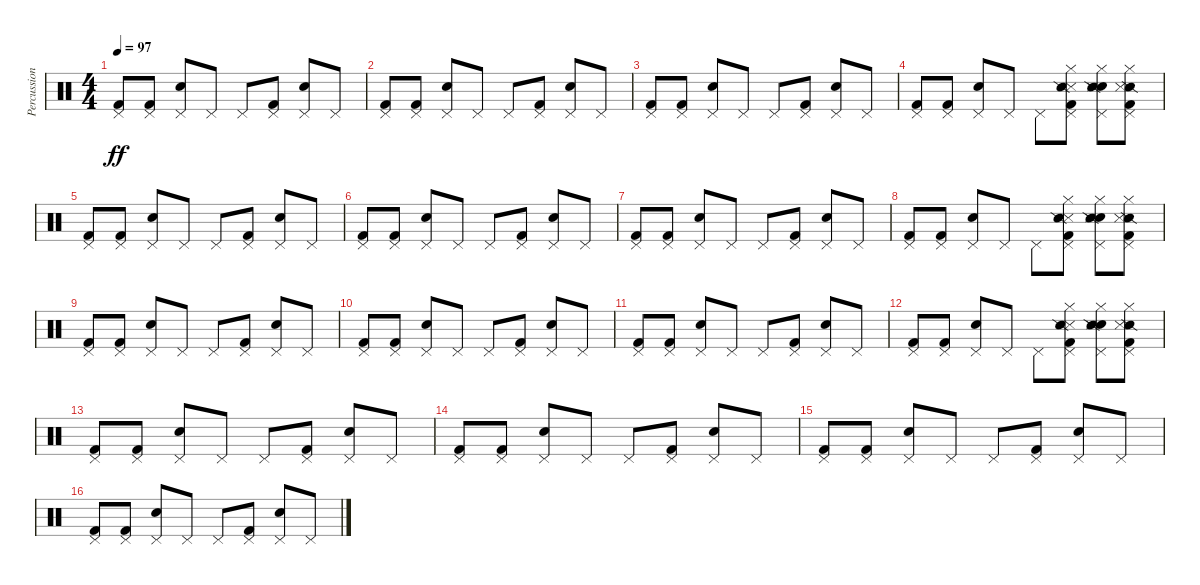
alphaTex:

\track ("Percussion" "Percussion") {instrument percussion}
\staff {score}
\articulation defaults
\ts (4 4)
\tempo 97
\clef neutral
\ks c
("Pedal Hi-Hat (hit)" "Kick (hit) 2").8{dy ff} ("Kick (hit) 2" "Pedal Hi-Hat (hit)").8 ("Electric Snare (hit)" "Pedal Hi-Hat (hit)").8 "Pedal Hi-Hat (hit)".8 "Pedal Hi-Hat (hit)".8 ("Kick (hit) 2" "Pedal Hi-Hat (hit)").8 ("Electric Snare (hit)" "Pedal Hi-Hat (hit)").8 "Pedal Hi-Hat (hit)".8 |
("Pedal Hi-Hat (hit)" "Kick (hit) 2").8 ("Kick (hit) 2" "Pedal Hi-Hat (hit)").8 ("Electric Snare (hit)" "Pedal Hi-Hat (hit)").8 "Pedal Hi-Hat (hit)".8 "Pedal Hi-Hat (hit)".8 ("Kick (hit) 2" "Pedal Hi-Hat (hit)").8 ("Electric Snare (hit)" "Pedal Hi-Hat (hit)").8 "Pedal Hi-Hat (hit)".8 |
("Pedal Hi-Hat (hit)" "Kick (hit) 2").8 ("Kick (hit) 2" "Pedal Hi-Hat (hit)").8 ("Electric Snare (hit)" "Pedal Hi-Hat (hit)").8 "Pedal Hi-Hat (hit)".8 "Pedal Hi-Hat (hit)".8 ("Kick (hit) 2" "Pedal Hi-Hat (hit)").8 ("Electric Snare (hit)" "Pedal Hi-Hat (hit)").8 "Pedal Hi-Hat (hit)".8 |
("Pedal Hi-Hat (hit)" "Kick (hit) 2").8 ("Kick (hit) 2" "Pedal Hi-Hat (hit)").8 ("Electric Snare (hit)" "Pedal Hi-Hat (hit)").8 "Pedal Hi-Hat (hit)".8 "Pedal Hi-Hat (hit)".8 ("Snare (side stick) 3" "Snare (side stick) 2" "Hi-Hat (closed)" "Pedal Hi-Hat (hit)" "Kick (hit) 2").8 ("Electric Snare (hit)" "Pedal Hi-Hat (hit)" "Hi-Hat (closed)" "Snare (side stick) 2" "Snare (side stick) 3").8 ("Pedal Hi-Hat (hit)" "Hi-Hat (closed)" "Snare (side stick) 2" "Kick (hit) 2" "Snare (side stick) 3").8 |
("Kick (hit) 2" "Pedal Hi-Hat (hit)").8 ("Kick (hit) 2" "Pedal Hi-Hat (hit)").8 ("Electric Snare (hit)" "Pedal Hi-Hat (hit)").8 "Pedal Hi-Hat (hit)".8 "Pedal Hi-Hat (hit)".8 ("Kick (hit) 2" "Pedal Hi-Hat (hit)").8 ("Electric Snare (hit)" "Pedal Hi-Hat (hit)").8 "Pedal Hi-Hat (hit)".8 |
("Pedal Hi-Hat (hit)" "Kick (hit) 2").8 ("Kick (hit) 2" "Pedal Hi-Hat (hit)").8 ("Electric Snare (hit)" "Pedal Hi-Hat (hit)").8 "Pedal Hi-Hat (hit)".8 "Pedal Hi-Hat (hit)".8 ("Kick (hit) 2" "Pedal Hi-Hat (hit)").8 ("Electric Snare (hit)" "Pedal Hi-Hat (hit)").8 "Pedal Hi-Hat (hit)".8 |
("Pedal Hi-Hat (hit)" "Kick (hit) 2").8 ("Kick (hit) 2" "Pedal Hi-Hat (hit)").8 ("Electric Snare (hit)" "Pedal Hi-Hat (hit)").8 "Pedal Hi-Hat (hit)".8 "Pedal Hi-Hat (hit)".8 ("Kick (hit) 2" "Pedal Hi-Hat (hit)").8 ("Electric Snare (hit)" "Pedal Hi-Hat (hit)").8 "Pedal Hi-Hat (hit)".8 |
("Pedal Hi-Hat (hit)" "Kick (hit) 2").8 ("Kick (hit) 2" "Pedal Hi-Hat (hit)").8 ("Electric Snare (hit)" "Pedal Hi-Hat (hit)").8 "Pedal Hi-Hat (hit)".8 "Pedal Hi-Hat (hit)".8 ("Snare (side stick) 3" "Snare (side stick) 2" "Hi-Hat (closed)" "Pedal Hi-Hat (hit)" "Kick (hit) 2").8 ("Electric Snare (hit)" "Pedal Hi-Hat (hit)" "Hi-Hat (closed)" "Snare (side stick) 2" "Snare (side stick) 3").8 ("Pedal Hi-Hat (hit)" "Hi-Hat (closed)" "Snare (side stick) 2" "Kick (hit) 2" "Snare (side stick) 3").8 |
("Pedal Hi-Hat (hit)" "Kick (hit) 2").8 ("Kick (hit) 2" "Pedal Hi-Hat (hit)").8 ("Electric Snare (hit)" "Pedal Hi-Hat (hit)").8 "Pedal Hi-Hat (hit)".8 "Pedal Hi-Hat (hit)".8 ("Kick (hit) 2" "Pedal Hi-Hat (hit)").8 ("Electric Snare (hit)" "Pedal Hi-Hat (hit)").8 "Pedal Hi-Hat (hit)".8 |
("Pedal Hi-Hat (hit)" "Kick (hit) 2").8 ("Kick (hit) 2" "Pedal Hi-Hat (hit)").8 ("Electric Snare (hit)" "Pedal Hi-Hat (hit)").8 "Pedal Hi-Hat (hit)".8 "Pedal Hi-Hat (hit)".8 ("Kick (hit) 2" "Pedal Hi-Hat (hit)").8 ("Electric Snare (hit)" "Pedal Hi-Hat (hit)").8 "Pedal Hi-Hat (hit)".8 |
("Pedal Hi-Hat (hit)" "Kick (hit) 2").8 ("Kick (hit) 2" "Pedal Hi-Hat (hit)").8 ("Electric Snare (hit)" "Pedal Hi-Hat (hit)").8 "Pedal Hi-Hat (hit)".8 "Pedal Hi-Hat (hit)".8 ("Kick (hit) 2" "Pedal Hi-Hat (hit)").8 ("Electric Snare (hit)" "Pedal Hi-Hat (hit)").8 "Pedal Hi-Hat (hit)".8 |
("Pedal Hi-Hat (hit)" "Kick (hit) 2").8 ("Kick (hit) 2" "Pedal Hi-Hat (hit)").8 ("Electric Snare (hit)" "Pedal Hi-Hat (hit)").8 "Pedal Hi-Hat (hit)".8 "Pedal Hi-Hat (hit)".8 ("Snare (side stick) 3" "Snare (side stick) 2" "Hi-Hat (closed)" "Pedal Hi-Hat (hit)" "Kick (hit) 2").8 ("Electric Snare (hit)" "Pedal Hi-Hat (hit)" "Hi-Hat (closed)" "Snare (side stick) 2" "Snare (side stick) 3").8 ("Pedal Hi-Hat (hit)" "Hi-Hat (closed)" "Snare (side stick) 2" "Kick (hit) 2" "Snare (side stick) 3").8 |
("Kick (hit) 2" "Pedal Hi-Hat (hit)").8 ("Kick (hit) 2" "Pedal Hi-Hat (hit)").8 ("Electric Snare (hit)" "Pedal Hi-Hat (hit)").8 "Pedal Hi-Hat (hit)".8 "Pedal Hi-Hat (hit)".8 ("Kick (hit) 2" "Pedal Hi-Hat (hit)").8 ("Electric Snare (hit)" "Pedal Hi-Hat (hit)").8 "Pedal Hi-Hat (hit)".8 |
("Pedal Hi-Hat (hit)" "Kick (hit) 2").8 ("Kick (hit) 2" "Pedal Hi-Hat (hit)").8 ("Electric Snare (hit)" "Pedal Hi-Hat (hit)").8 "Pedal Hi-Hat (hit)".8 "Pedal Hi-Hat (hit)".8 ("Kick (hit) 2" "Pedal Hi-Hat (hit)").8 ("Electric Snare (hit)" "Pedal Hi-Hat (hit)").8 "Pedal Hi-Hat (hit)".8 |
("Pedal Hi-Hat (hit)" "Kick (hit) 2").8 ("Kick (hit) 2" "Pedal Hi-Hat (hit)").8 ("Electric Snare (hit)" "Pedal Hi-Hat (hit)").8 "Pedal Hi-Hat (hit)".8 "Pedal Hi-Hat (hit)".8 ("Kick (hit) 2" "Pedal Hi-Hat (hit)").8 ("Electric Snare (hit)" "Pedal Hi-Hat (hit)").8 "Pedal Hi-Hat (hit)".8 |
("Pedal Hi-Hat (hit)" "Kick (hit) 2").8 ("Kick (hit) 2" "Pedal Hi-Hat (hit)").8 ("Electric Snare (hit)" "Pedal Hi-Hat (hit)").8 "Pedal Hi-Hat (hit)".8 "Pedal Hi-Hat (hit)".8 ("Kick (hit) 2" "Pedal Hi-Hat (hit)").8 ("Electric Snare (hit)" "Pedal Hi-Hat (hit)").8 "Pedal Hi-Hat (hit)".8
